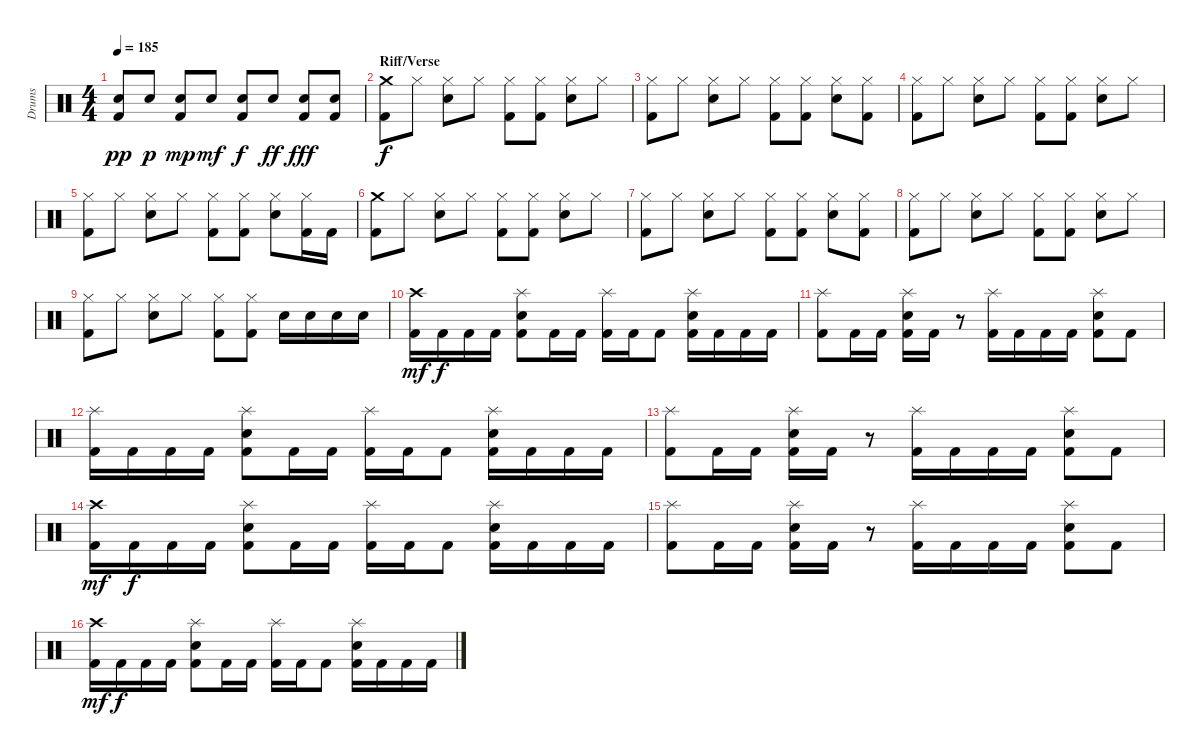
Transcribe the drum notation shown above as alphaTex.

\track ("Drums" "Drums") {instrument percussion}
\staff {score}
\articulation defaults
\ts (4 4)
\tempo 185
\clef neutral
\ks c
("Kick (hit) 2" "Electric Snare (hit)").8{dy pp} "Electric Snare (hit)".8{dy p} ("Kick (hit) 2" "Electric Snare (hit)").8{dy mp} "Electric Snare (hit)".8{dy mf} ("Kick (hit) 2" "Electric Snare (hit)").8{dy f} "Electric Snare (hit)".8{dy ff} ("Kick (hit) 2" "Electric Snare (hit)").8{dy fff} ("Kick (hit) 2" "Electric Snare (hit)").8 |
\section ("" "Riff/Verse")
("Kick (hit) 2" "Crash medium (hit)").8{dy f} "Hi-Hat (closed)".8 ("Electric Snare (hit)" "Hi-Hat (closed)").8 "Hi-Hat (closed)".8 ("Kick (hit) 2" "Hi-Hat (closed)").8 ("Kick (hit) 2" "Hi-Hat (closed)").8 ("Electric Snare (hit)" "Hi-Hat (closed)").8 "Hi-Hat (closed)".8 |
("Kick (hit) 2" "Hi-Hat (closed)").8 "Hi-Hat (closed)".8 ("Electric Snare (hit)" "Hi-Hat (closed)").8 "Hi-Hat (closed)".8 ("Kick (hit) 2" "Hi-Hat (closed)").8 ("Kick (hit) 2" "Hi-Hat (closed)").8 ("Electric Snare (hit)" "Hi-Hat (closed)").8 ("Kick (hit) 2" "Hi-Hat (closed)").8 |
("Kick (hit) 2" "Hi-Hat (closed)").8 "Hi-Hat (closed)".8 ("Electric Snare (hit)" "Hi-Hat (closed)").8 "Hi-Hat (closed)".8 ("Kick (hit) 2" "Hi-Hat (closed)").8 ("Kick (hit) 2" "Hi-Hat (closed)").8 ("Electric Snare (hit)" "Hi-Hat (closed)").8 "Hi-Hat (closed)".8 |
("Kick (hit) 2" "Hi-Hat (closed)").8 "Hi-Hat (closed)".8 ("Electric Snare (hit)" "Hi-Hat (closed)").8 "Hi-Hat (closed)".8 ("Kick (hit) 2" "Hi-Hat (closed)").8 ("Kick (hit) 2" "Hi-Hat (closed)").8 ("Electric Snare (hit)" "Hi-Hat (closed)").8 ("Kick (hit) 2" "Hi-Hat (closed)").16 "Kick (hit) 2".16 |
("Kick (hit) 2" "Crash medium (hit)").8 "Hi-Hat (closed)".8 ("Electric Snare (hit)" "Hi-Hat (closed)").8 "Hi-Hat (closed)".8 ("Kick (hit) 2" "Hi-Hat (closed)").8 ("Kick (hit) 2" "Hi-Hat (closed)").8 ("Electric Snare (hit)" "Hi-Hat (closed)").8 "Hi-Hat (closed)".8 |
("Kick (hit) 2" "Hi-Hat (closed)").8 "Hi-Hat (closed)".8 ("Electric Snare (hit)" "Hi-Hat (closed)").8 "Hi-Hat (closed)".8 ("Kick (hit) 2" "Hi-Hat (closed)").8 ("Kick (hit) 2" "Hi-Hat (closed)").8 ("Electric Snare (hit)" "Hi-Hat (closed)").8 ("Kick (hit) 2" "Hi-Hat (closed)").8 |
("Kick (hit) 2" "Hi-Hat (closed)").8 "Hi-Hat (closed)".8 ("Electric Snare (hit)" "Hi-Hat (closed)").8 "Hi-Hat (closed)".8 ("Kick (hit) 2" "Hi-Hat (closed)").8 ("Kick (hit) 2" "Hi-Hat (closed)").8 ("Electric Snare (hit)" "Hi-Hat (closed)").8 "Hi-Hat (closed)".8 |
("Kick (hit) 2" "Hi-Hat (closed)").8 "Hi-Hat (closed)".8 ("Electric Snare (hit)" "Hi-Hat (closed)").8 "Hi-Hat (closed)".8 ("Kick (hit) 2" "Hi-Hat (closed)").8 ("Kick (hit) 2" "Hi-Hat (closed)").8 "Electric Snare (hit)".16 "Electric Snare (hit)".16 "Electric Snare (hit)".16 "Electric Snare (hit)".16 |
\section ("" "")
("Kick (hit) 2" "Crash high (hit)").16{dy mf} "Kick (hit) 2".16{dy f} "Kick (hit) 2".16 "Kick (hit) 2".16 ("Kick (hit) 2" "Electric Snare (hit)" "Splash (hit)").8 "Kick (hit) 2".16 "Kick (hit) 2".16 ("Kick (hit) 2" "Splash (hit)").16 "Kick (hit) 2".16 "Kick (hit) 2".8 ("Kick (hit) 2" "Electric Snare (hit)" "Splash (hit)").16 "Kick (hit) 2".16 "Kick (hit) 2".16 "Kick (hit) 2".16 |
("Kick (hit) 2" "Splash (hit)").8 "Kick (hit) 2".16 "Kick (hit) 2".16 ("Kick (hit) 2" "Electric Snare (hit)" "Splash (hit)").16 "Kick (hit) 2".16 r.8 ("Kick (hit) 2" "Splash (hit)").16 "Kick (hit) 2".16 "Kick (hit) 2".16 "Kick (hit) 2".16 ("Kick (hit) 2" "Electric Snare (hit)" "Splash (hit)").8 "Kick (hit) 2".8 |
("Kick (hit) 2" "Splash (hit)").16 "Kick (hit) 2".16 "Kick (hit) 2".16 "Kick (hit) 2".16 ("Kick (hit) 2" "Electric Snare (hit)" "Splash (hit)").8 "Kick (hit) 2".16 "Kick (hit) 2".16 ("Kick (hit) 2" "Splash (hit)").16 "Kick (hit) 2".16 "Kick (hit) 2".8 ("Kick (hit) 2" "Electric Snare (hit)" "Splash (hit)").16 "Kick (hit) 2".16 "Kick (hit) 2".16 "Kick (hit) 2".16 |
("Kick (hit) 2" "Splash (hit)").8 "Kick (hit) 2".16 "Kick (hit) 2".16 ("Kick (hit) 2" "Electric Snare (hit)" "Splash (hit)").16 "Kick (hit) 2".16 r.8 ("Kick (hit) 2" "Splash (hit)").16 "Kick (hit) 2".16 "Kick (hit) 2".16 "Kick (hit) 2".16 ("Kick (hit) 2" "Electric Snare (hit)" "Splash (hit)").8 "Kick (hit) 2".8 |
("Kick (hit) 2" "Crash high (hit)").16{dy mf} "Kick (hit) 2".16{dy f} "Kick (hit) 2".16 "Kick (hit) 2".16 ("Kick (hit) 2" "Electric Snare (hit)" "Splash (hit)").8 "Kick (hit) 2".16 "Kick (hit) 2".16 ("Kick (hit) 2" "Splash (hit)").16 "Kick (hit) 2".16 "Kick (hit) 2".8 ("Kick (hit) 2" "Electric Snare (hit)" "Splash (hit)").16 "Kick (hit) 2".16 "Kick (hit) 2".16 "Kick (hit) 2".16 |
("Kick (hit) 2" "Splash (hit)").8 "Kick (hit) 2".16 "Kick (hit) 2".16 ("Kick (hit) 2" "Electric Snare (hit)" "Splash (hit)").16 "Kick (hit) 2".16 r.8 ("Kick (hit) 2" "Splash (hit)").16 "Kick (hit) 2".16 "Kick (hit) 2".16 "Kick (hit) 2".16 ("Kick (hit) 2" "Electric Snare (hit)" "Splash (hit)").8 "Kick (hit) 2".8 |
("Kick (hit) 2" "Crash high (hit)").16{dy mf} "Kick (hit) 2".16{dy f} "Kick (hit) 2".16 "Kick (hit) 2".16 ("Kick (hit) 2" "Electric Snare (hit)" "Splash (hit)").8 "Kick (hit) 2".16 "Kick (hit) 2".16 ("Kick (hit) 2" "Splash (hit)").16 "Kick (hit) 2".16 "Kick (hit) 2".8 ("Kick (hit) 2" "Electric Snare (hit)" "Splash (hit)").16 "Kick (hit) 2".16 "Kick (hit) 2".16 "Kick (hit) 2".16
